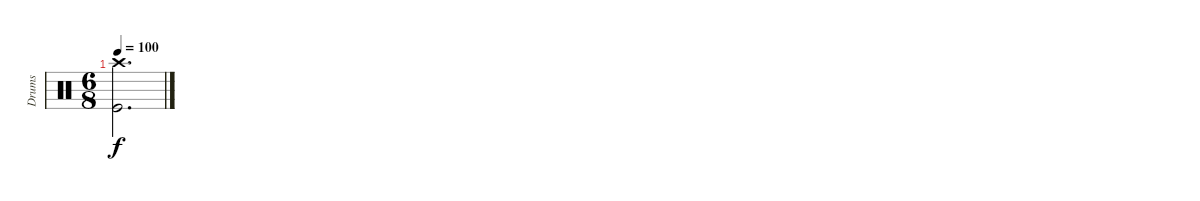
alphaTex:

\track ("Drums" "Drums") {instrument percussion}
\staff {score}
\articulation defaults
\ts (6 8)
\tempo 100
\clef neutral
\ks c
("Crash high (hit)"{t} "Kick (hit)"{t}).2{d dy f}
